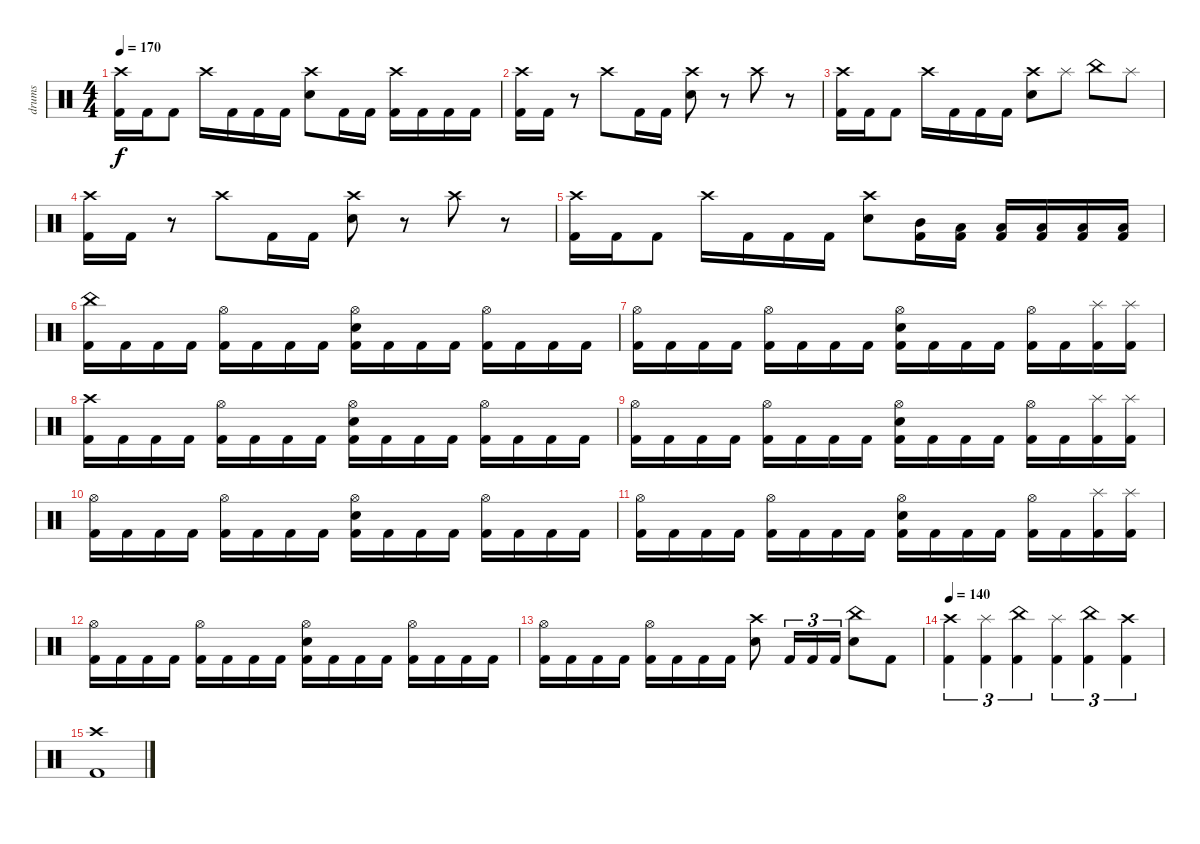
\track ("drums" "drums") {instrument percussion}
\staff {score}
\articulation defaults
\ts (4 4)
\tempo 170
\clef neutral
\ks c
("Crash high (hit)" "Kick (hit) 2").16{dy f} "Kick (hit) 2".16 "Kick (hit) 2".8 "Crash high (hit)".16 "Kick (hit) 2".16 "Kick (hit) 2".16 "Kick (hit) 2".16 ("Crash high (hit)" "Electric Snare (hit)").8 "Kick (hit) 2".16 "Kick (hit) 2".16 ("Crash high (hit)" "Kick (hit) 2").16 "Kick (hit) 2".16 "Kick (hit) 2".16 "Kick (hit) 2".16 |
("Crash high (hit)" "Kick (hit) 2").16 "Kick (hit) 2".16 r.8 "Crash high (hit)".8 "Kick (hit) 2".16 "Kick (hit) 2".16 ("Crash high (hit)" "Electric Snare (hit)").8 r.8 "Crash high (hit)".8 r.8 |
("Crash high (hit)" "Kick (hit) 2").16 "Kick (hit) 2".16 "Kick (hit) 2".8 "Crash high (hit)".16 "Kick (hit) 2".16 "Kick (hit) 2".16 "Kick (hit) 2".16 ("Crash high (hit)" "Electric Snare (hit)").8 "Splash (hit)".8 "China (hit)".8 "Splash (hit)".8 |
("Crash high (hit)" "Kick (hit) 2").16 "Kick (hit) 2".16 r.8 "Crash high (hit)".8 "Kick (hit) 2".16 "Kick (hit) 2".16 ("Crash high (hit)" "Electric Snare (hit)").8 r.8 "Crash high (hit)".8 r.8 |
("Crash high (hit)" "Kick (hit) 2").16 "Kick (hit) 2".16 "Kick (hit) 2".8 "Crash high (hit)".16 "Kick (hit) 2".16 "Kick (hit) 2".16 "Kick (hit) 2".16 ("Crash high (hit)" "Electric Snare (hit)").8 ("Mid Tom (hit)" "Kick (hit) 2").16 ("Low Tom (hit)" "Kick (hit) 2").16 ("Low Floor Tom (hit)" "Kick (hit) 2").16 ("Low Tom (hit)" "Kick (hit) 2").16 ("Low Floor Tom (hit)" "Kick (hit) 2").16 ("Low Floor Tom (hit)" "Kick (hit) 2").16 |
("China (hit)" "Kick (hit) 2").16 "Kick (hit) 2".16 "Kick (hit) 2".16 "Kick (hit) 2".16 ("Hi-Hat (open)" "Kick (hit) 2").16 "Kick (hit) 2".16 "Kick (hit) 2".16 "Kick (hit) 2".16 ("Hi-Hat (open)" "Electric Snare (hit)" "Kick (hit) 2").16 "Kick (hit) 2".16 "Kick (hit) 2".16 "Kick (hit) 2".16 ("Hi-Hat (open)" "Kick (hit) 2").16 "Kick (hit) 2".16 "Kick (hit) 2".16 "Kick (hit) 2".16 |
("Hi-Hat (open)" "Kick (hit) 2").16 "Kick (hit) 2".16 "Kick (hit) 2".16 "Kick (hit) 2".16 ("Hi-Hat (open)" "Kick (hit) 2").16 "Kick (hit) 2".16 "Kick (hit) 2".16 "Kick (hit) 2".16 ("Hi-Hat (open)" "Electric Snare (hit)" "Kick (hit) 2").16 "Kick (hit) 2".16 "Kick (hit) 2".16 "Kick (hit) 2".16 ("Hi-Hat (open)" "Kick (hit) 2").16 "Kick (hit) 2".16 ("Splash (hit)" "Kick (hit) 2").16 ("Splash (hit)" "Kick (hit) 2").16 |
("Crash high (hit)" "Kick (hit) 2").16 "Kick (hit) 2".16 "Kick (hit) 2".16 "Kick (hit) 2".16 ("Hi-Hat (open)" "Kick (hit) 2").16 "Kick (hit) 2".16 "Kick (hit) 2".16 "Kick (hit) 2".16 ("Hi-Hat (open)" "Electric Snare (hit)" "Kick (hit) 2").16 "Kick (hit) 2".16 "Kick (hit) 2".16 "Kick (hit) 2".16 ("Hi-Hat (open)" "Kick (hit) 2").16 "Kick (hit) 2".16 "Kick (hit) 2".16 "Kick (hit) 2".16 |
("Hi-Hat (open)" "Kick (hit) 2").16 "Kick (hit) 2".16 "Kick (hit) 2".16 "Kick (hit) 2".16 ("Hi-Hat (open)" "Kick (hit) 2").16 "Kick (hit) 2".16 "Kick (hit) 2".16 "Kick (hit) 2".16 ("Hi-Hat (open)" "Electric Snare (hit)" "Kick (hit) 2").16 "Kick (hit) 2".16 "Kick (hit) 2".16 "Kick (hit) 2".16 ("Hi-Hat (open)" "Kick (hit) 2").16 "Kick (hit) 2".16 ("Splash (hit)" "Kick (hit) 2").16 ("Splash (hit)" "Kick (hit) 2").16 |
("Hi-Hat (open)" "Kick (hit) 2").16 "Kick (hit) 2".16 "Kick (hit) 2".16 "Kick (hit) 2".16 ("Hi-Hat (open)" "Kick (hit) 2").16 "Kick (hit) 2".16 "Kick (hit) 2".16 "Kick (hit) 2".16 ("Hi-Hat (open)" "Electric Snare (hit)" "Kick (hit) 2").16 "Kick (hit) 2".16 "Kick (hit) 2".16 "Kick (hit) 2".16 ("Hi-Hat (open)" "Kick (hit) 2").16 "Kick (hit) 2".16 "Kick (hit) 2".16 "Kick (hit) 2".16 |
("Hi-Hat (open)" "Kick (hit) 2").16 "Kick (hit) 2".16 "Kick (hit) 2".16 "Kick (hit) 2".16 ("Hi-Hat (open)" "Kick (hit) 2").16 "Kick (hit) 2".16 "Kick (hit) 2".16 "Kick (hit) 2".16 ("Hi-Hat (open)" "Electric Snare (hit)" "Kick (hit) 2").16 "Kick (hit) 2".16 "Kick (hit) 2".16 "Kick (hit) 2".16 ("Hi-Hat (open)" "Kick (hit) 2").16 "Kick (hit) 2".16 ("Splash (hit)" "Kick (hit) 2").16 ("Splash (hit)" "Kick (hit) 2").16 |
("Hi-Hat (open)" "Kick (hit) 2").16 "Kick (hit) 2".16 "Kick (hit) 2".16 "Kick (hit) 2".16 ("Hi-Hat (open)" "Kick (hit) 2").16 "Kick (hit) 2".16 "Kick (hit) 2".16 "Kick (hit) 2".16 ("Hi-Hat (open)" "Electric Snare (hit)" "Kick (hit) 2").16 "Kick (hit) 2".16 "Kick (hit) 2".16 "Kick (hit) 2".16 ("Hi-Hat (open)" "Kick (hit) 2").16 "Kick (hit) 2".16 "Kick (hit) 2".16 "Kick (hit) 2".16 |
("Hi-Hat (open)" "Kick (hit) 2").16 "Kick (hit) 2".16 "Kick (hit) 2".16 "Kick (hit) 2".16 ("Hi-Hat (open)" "Kick (hit) 2").16 "Kick (hit) 2".16 "Kick (hit) 2".16 "Kick (hit) 2".16 ("Crash high (hit)" "Electric Snare (hit)").8 "Kick (hit) 2".16{tu (3 2)} "Kick (hit) 2".16{tu (3 2)} "Kick (hit) 2".16{tu (3 2)} ("China (hit)" "Electric Snare (hit)").8 "Kick (hit) 2".8 |
\tempo 150
\tempo 140
("Crash high (hit)" "Kick (hit) 2").4{tu (3 2)} ("Splash (hit)" "Kick (hit) 2").4{tu (3 2)} ("China (hit)" "Kick (hit) 2").4{tu (3 2)} ("Splash (hit)" "Kick (hit) 2").4{tu (3 2)} ("China (hit)" "Kick (hit) 2").4{tu (3 2)} ("Crash high (hit)" "Kick (hit) 2").4{tu (3 2)} |
("Crash high (hit)" "Kick (hit) 2").1
